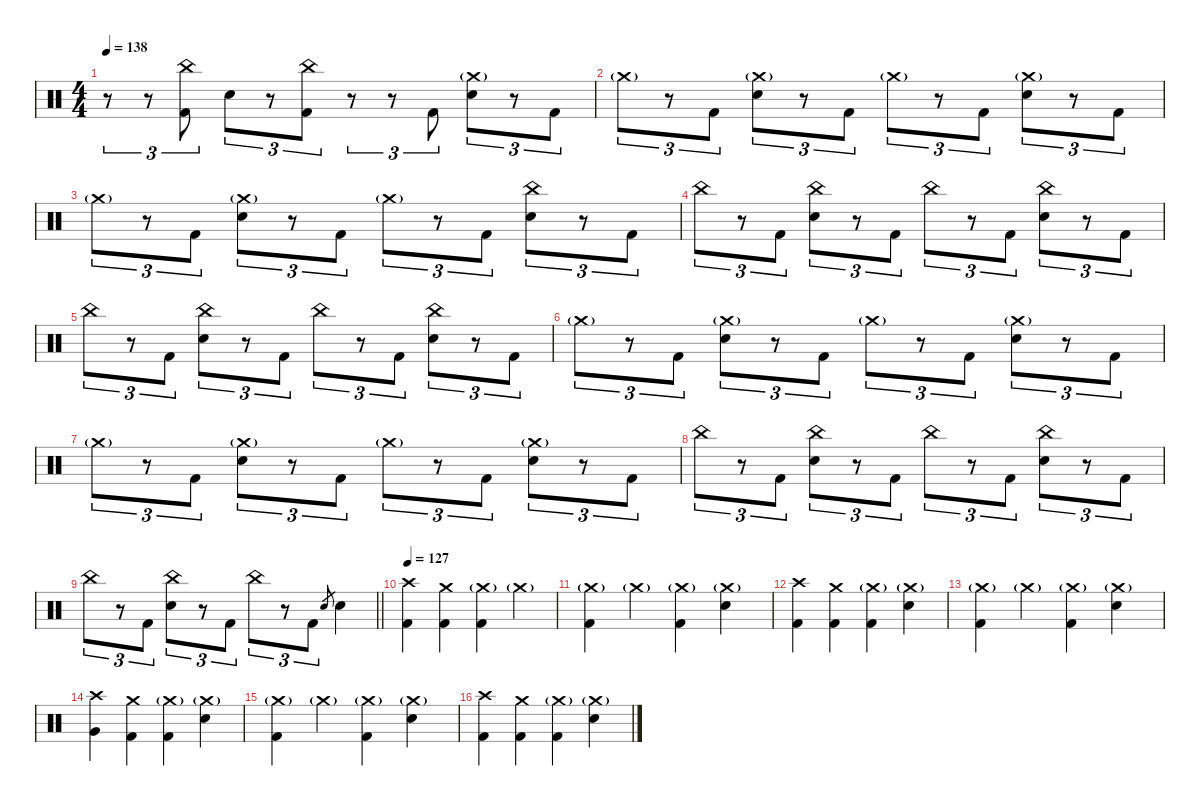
\defaultSystemsLayout 4
\hideDynamics
\bracketExtendMode nobrackets
\singleTrackTrackNamePolicy hidden
\multiTrackTrackNamePolicy hidden
\otherSystemsTrackNameOrientation horizontal
\track ("Gene Hoglan" "drm.") {instrument percussion}
\staff {score}
\articulation defaults
\ts (4 4)
\tempo 138
\clef neutral
\ks c
r.8{tu (3 2) dy f beam Down} r.8{tu (3 2) beam Down} ("China (hit)" "Kick (hit) 2").8{tu (3 2) beam Down} "Snare (hit) 2".8{tu (3 2) beam Down} r.8{tu (3 2) beam Down} ("China (hit)" "Kick (hit) 2").8{tu (3 2) beam Down} r.8{tu (3 2) beam Down} r.8{tu (3 2) beam Down} "Kick (hit) 2".8{tu (3 2) beam Up} ("Crash medium (hit)"{g} "Snare (hit) 2").8{tu (3 2) beam Down} r.8{tu (3 2) beam Down} "Kick (hit) 2".8{tu (3 2) beam Down} |
"Crash medium (hit)"{g}.8{tu (3 2) dy mf beam Down} r.8{tu (3 2) beam Down} "Kick (hit) 2".8{tu (3 2) dy f beam Down} ("Crash medium (hit)"{g} "Snare (hit) 2").8{tu (3 2) beam Down} r.8{tu (3 2) beam Down} "Kick (hit) 2".8{tu (3 2) beam Down} "Crash medium (hit)"{g}.8{tu (3 2) dy mf beam Down} r.8{tu (3 2) beam Down} "Kick (hit) 2".8{tu (3 2) dy f beam Down} ("Crash medium (hit)"{g} "Snare (hit) 2").8{tu (3 2) beam Down} r.8{tu (3 2) beam Down} "Kick (hit) 2".8{tu (3 2) beam Down} |
"Crash medium (hit)"{g}.8{tu (3 2) dy mf beam Down} r.8{tu (3 2) beam Down} "Kick (hit) 2".8{tu (3 2) dy f beam Down} ("Crash medium (hit)"{g} "Snare (hit) 2").8{tu (3 2) beam Down} r.8{tu (3 2) beam Down} "Kick (hit) 2".8{tu (3 2) beam Down} "Crash medium (hit)"{g}.8{tu (3 2) dy mf beam Down} r.8{tu (3 2) beam Down} "Kick (hit) 2".8{tu (3 2) dy f beam Down} ("China (hit)" "Snare (hit) 2").8{tu (3 2) beam Down} r.8{tu (3 2) beam Down} "Kick (hit) 2".8{tu (3 2) beam Down} |
"China (hit)".8{tu (3 2) beam Down} r.8{tu (3 2) beam Down} "Kick (hit) 2".8{tu (3 2) beam Down} ("China (hit)" "Snare (hit) 2").8{tu (3 2) beam Down} r.8{tu (3 2) beam Down} "Kick (hit) 2".8{tu (3 2) beam Down} "China (hit)".8{tu (3 2) beam Down} r.8{tu (3 2) beam Down} "Kick (hit) 2".8{tu (3 2) beam Down} ("China (hit)" "Snare (hit) 2").8{tu (3 2) beam Down} r.8{tu (3 2) beam Down} "Kick (hit) 2".8{tu (3 2) beam Down} |
"China (hit)".8{tu (3 2) beam Down} r.8{tu (3 2) beam Down} "Kick (hit) 2".8{tu (3 2) beam Down} ("China (hit)" "Snare (hit) 2").8{tu (3 2) beam Down} r.8{tu (3 2) beam Down} "Kick (hit) 2".8{tu (3 2) beam Down} "China (hit)".8{tu (3 2) beam Down} r.8{tu (3 2) beam Down} "Kick (hit) 2".8{tu (3 2) beam Down} ("China (hit)" "Snare (hit) 2").8{tu (3 2) beam Down} r.8{tu (3 2) beam Down} "Kick (hit) 2".8{tu (3 2) beam Down} |
"Crash medium (hit)"{g}.8{tu (3 2) dy mf beam Down} r.8{tu (3 2) beam Down} "Kick (hit) 2".8{tu (3 2) dy f beam Down} ("Crash medium (hit)"{g} "Snare (hit) 2").8{tu (3 2) beam Down} r.8{tu (3 2) beam Down} "Kick (hit) 2".8{tu (3 2) beam Down} "Crash medium (hit)"{g}.8{tu (3 2) dy mf beam Down} r.8{tu (3 2) beam Down} "Kick (hit) 2".8{tu (3 2) dy f beam Down} ("Crash medium (hit)"{g} "Snare (hit) 2").8{tu (3 2) beam Down} r.8{tu (3 2) beam Down} "Kick (hit) 2".8{tu (3 2) beam Down} |
"Crash medium (hit)"{g}.8{tu (3 2) dy mf beam Down} r.8{tu (3 2) beam Down} "Kick (hit) 2".8{tu (3 2) dy f beam Down} ("Crash medium (hit)"{g} "Snare (hit) 2").8{tu (3 2) beam Down} r.8{tu (3 2) beam Down} "Kick (hit) 2".8{tu (3 2) beam Down} "Crash medium (hit)"{g}.8{tu (3 2) dy mf beam Down} r.8{tu (3 2) beam Down} "Kick (hit) 2".8{tu (3 2) dy f beam Down} ("Crash medium (hit)"{g} "Snare (hit) 2").8{tu (3 2) beam Down} r.8{tu (3 2) beam Down} "Kick (hit) 2".8{tu (3 2) beam Down} |
"China (hit)".8{tu (3 2) beam Down} r.8{tu (3 2) beam Down} "Kick (hit) 2".8{tu (3 2) beam Down} ("China (hit)" "Snare (hit) 2").8{tu (3 2) beam Down} r.8{tu (3 2) beam Down} "Kick (hit) 2".8{tu (3 2) beam Down} "China (hit)".8{tu (3 2) beam Down} r.8{tu (3 2) beam Down} "Kick (hit) 2".8{tu (3 2) beam Down} ("China (hit)" "Snare (hit) 2").8{tu (3 2) beam Down} r.8{tu (3 2) beam Down} "Kick (hit) 2".8{tu (3 2) beam Down} |
\barLineRight lightlight "China (hit)".8{tu (3 2) beam Down}
r.8{tu (3 2) beam Down} "Kick (hit) 2".8{tu (3 2) beam Down} ("China (hit)" "Snare (hit) 2").8{tu (3 2) beam Down} r.8{tu (3 2) beam Down} "Kick (hit) 2".8{tu (3 2) beam Down} "China (hit)".8{tu (3 2) beam Down} r.8{tu (3 2) beam Down} "Kick (hit) 2".8{tu (3 2) beam Down} "Electric Snare (hit)".8{gr dy mf beam Up} "Snare (hit) 2".4{dy f beam Down} |
\tempo 127
("Crash high (hit)" "Kick (hit) 2").4{beam Down} ("Crash medium (hit)" "Kick (hit) 2").4{beam Down} ("Crash medium (hit)"{g} "Kick (hit) 2").4{beam Down} "Crash medium (hit)"{g}.4{dy mf beam Down} |
("Crash medium (hit)"{g} "Kick (hit) 2").4{dy f beam Down} "Crash medium (hit)"{g}.4{dy mf beam Down} ("Crash medium (hit)"{g} "Kick (hit) 2").4{dy f beam Down} ("Crash medium (hit)"{g} "Snare (hit) 2").4{beam Down} |
("Crash high (hit)" "Kick (hit) 2").4{beam Down} ("Crash medium (hit)" "Kick (hit) 2").4{beam Down} ("Crash medium (hit)"{g} "Kick (hit) 2").4{beam Down} ("Crash medium (hit)"{g} "Snare (hit) 2").4{beam Down} |
("Crash medium (hit)"{g} "Kick (hit) 2").4{beam Down} "Crash medium (hit)"{g}.4{dy mf beam Down} ("Crash medium (hit)"{g} "Kick (hit) 2").4{dy f beam Down} ("Crash medium (hit)"{g} "Snare (hit) 2").4{beam Down} |
("Crash high (hit)" "Very Low Tom (hit)").4{beam Down} ("Crash medium (hit)" "Kick (hit) 2").4{beam Down} ("Crash medium (hit)"{g} "Kick (hit) 2").4{beam Down} ("Crash medium (hit)"{g} "Snare (hit) 2").4{beam Down} |
("Crash medium (hit)"{g} "Kick (hit) 2").4{beam Down} "Crash medium (hit)"{g}.4{dy mf beam Down} ("Crash medium (hit)"{g} "Kick (hit) 2").4{dy f beam Down} ("Crash medium (hit)"{g} "Snare (hit) 2").4{beam Down} |
("Crash high (hit)" "Kick (hit) 2").4{beam Down} ("Crash medium (hit)" "Kick (hit) 2").4{beam Down} ("Crash medium (hit)"{g} "Kick (hit) 2").4{beam Down} ("Crash medium (hit)"{g} "Snare (hit) 2").4{beam Down}
